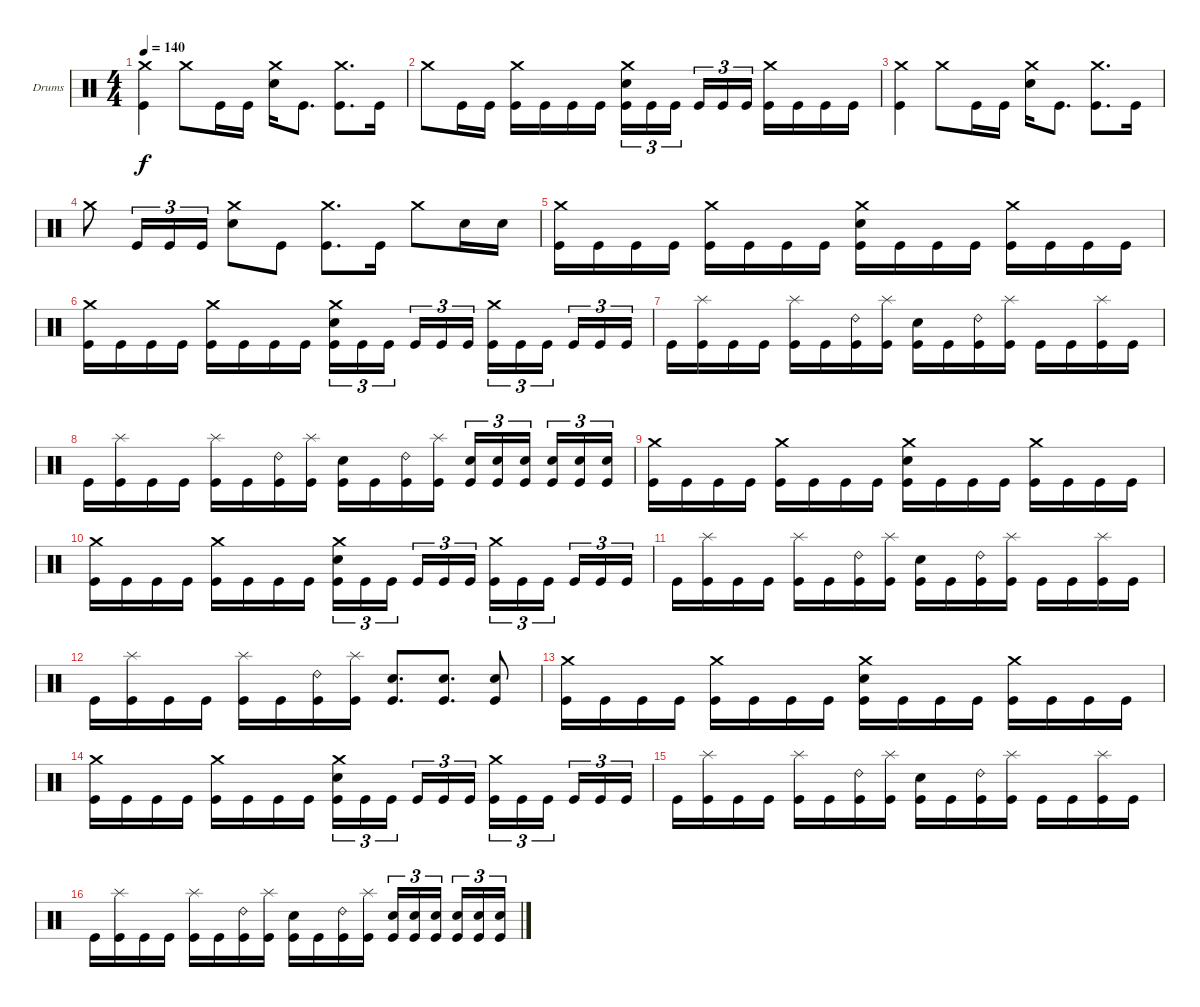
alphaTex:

\defaultSystemsLayout 4
\bracketExtendMode groupsimilarinstruments
\firstSystemTrackNameOrientation horizontal
\otherSystemsTrackNameOrientation horizontal
\track ("Drumkit" "Drums") {instrument percussion}
\staff {score}
\articulation defaults
\ts (4 4)
\tempo 140
\clef neutral
\ks c
("Crash medium (hit)" "Kick (hit)").4{dy f} "Crash medium (hit)".8 "Kick (hit)".16 "Kick (hit)".16 ("Crash medium (hit)" "Snare (hit) 2").16 "Kick (hit)".8{d} ("Crash medium (hit)" "Kick (hit)").8{d} "Kick (hit)".16 |
"Crash medium (hit)".8 "Kick (hit)".16 "Kick (hit)".16 ("Crash medium (hit)" "Kick (hit)").16 "Kick (hit)".16 "Kick (hit)".16 "Kick (hit)".16 ("Crash medium (hit)" "Snare (hit) 2" "Kick (hit)").16{tu (3 2)} "Kick (hit)".16{tu (3 2)} "Kick (hit)".16{tu (3 2)} "Kick (hit)".16{tu (3 2)} "Kick (hit)".16{tu (3 2)} "Kick (hit)".16{tu (3 2)} ("Crash medium (hit)" "Kick (hit)").16 "Kick (hit)".16 "Kick (hit)".16 "Kick (hit)".16 |
("Crash medium (hit)" "Kick (hit)").4 "Crash medium (hit)".8 "Kick (hit)".16 "Kick (hit)".16 ("Crash medium (hit)" "Snare (hit) 2").16 "Kick (hit)".8{d} ("Crash medium (hit)" "Kick (hit)").8{d} "Kick (hit)".16 |
"Crash medium (hit)".8 "Kick (hit)".16{tu (3 2)} "Kick (hit)".16{tu (3 2)} "Kick (hit)".16{tu (3 2)} ("Crash medium (hit)" "Snare (hit) 2").8 "Kick (hit)".8 ("Crash medium (hit)" "Kick (hit)").8{d} "Kick (hit)".16 "Crash medium (hit)".8 "Snare (hit) 2".16 "Snare (hit) 2".16 |
("Crash medium (hit)" "Kick (hit)").16 "Kick (hit)".16 "Kick (hit)".16 "Kick (hit)".16 ("Crash medium (hit)" "Kick (hit)").16 "Kick (hit)".16 "Kick (hit)".16 "Kick (hit)".16 ("Crash medium (hit)" "Snare (hit) 2" "Kick (hit)").16 "Kick (hit)".16 "Kick (hit)".16 "Kick (hit)".16 ("Crash medium (hit)" "Kick (hit)").16 "Kick (hit)".16 "Kick (hit)".16 "Kick (hit)".16 |
("Crash medium (hit)" "Kick (hit)").16 "Kick (hit)".16 "Kick (hit)".16 "Kick (hit)".16 ("Crash medium (hit)" "Kick (hit)").16 "Kick (hit)".16 "Kick (hit)".16 "Kick (hit)".16 ("Crash medium (hit)" "Snare (hit) 2" "Kick (hit)").16{tu (3 2)} "Kick (hit)".16{tu (3 2)} "Kick (hit)".16{tu (3 2)} "Kick (hit)".16{tu (3 2)} "Kick (hit)".16{tu (3 2)} "Kick (hit)".16{tu (3 2)} ("Crash medium (hit)" "Kick (hit)").16{tu (3 2)} "Kick (hit)".16{tu (3 2)} "Kick (hit)".16{tu (3 2)} "Kick (hit)".16{tu (3 2)} "Kick (hit)".16{tu (3 2)} "Kick (hit)".16{tu (3 2)} |
"Kick (hit)".16 ("Splash (hit)" "Kick (hit)").16 "Kick (hit)".16 "Kick (hit)".16 ("Splash (hit)" "Kick (hit)").16 "Kick (hit)".16 ("Ride (bell) 2" "Kick (hit)").16 ("Splash (hit)" "Kick (hit)").16 ("Snare (hit) 2" "Kick (hit)").16 "Kick (hit)".16 ("Ride (bell) 2" "Kick (hit)").16 ("Splash (hit)" "Kick (hit)").16 "Kick (hit)".16 "Kick (hit)".16 ("Splash (hit)" "Kick (hit)").16 "Kick (hit)".16 |
"Kick (hit)".16 ("Splash (hit)" "Kick (hit)").16 "Kick (hit)".16 "Kick (hit)".16 ("Splash (hit)" "Kick (hit)").16 "Kick (hit)".16 ("Ride (bell) 2" "Kick (hit)").16 ("Splash (hit)" "Kick (hit)").16 ("Snare (hit) 2" "Kick (hit)").16 "Kick (hit)".16 ("Ride (bell) 2" "Kick (hit)").16 ("Splash (hit)" "Kick (hit)").16 ("Snare (hit) 2" "Kick (hit)").16{tu (3 2)} ("Snare (hit) 2" "Kick (hit)").16{tu (3 2)} ("Snare (hit) 2" "Kick (hit)").16{tu (3 2)} ("Snare (hit) 2" "Kick (hit)").16{tu (3 2)} ("Snare (hit) 2" "Kick (hit)").16{tu (3 2)} ("Snare (hit) 2" "Kick (hit)").16{tu (3 2)} |
("Crash medium (hit)" "Kick (hit)").16 "Kick (hit)".16 "Kick (hit)".16 "Kick (hit)".16 ("Crash medium (hit)" "Kick (hit)").16 "Kick (hit)".16 "Kick (hit)".16 "Kick (hit)".16 ("Crash medium (hit)" "Snare (hit) 2" "Kick (hit)").16 "Kick (hit)".16 "Kick (hit)".16 "Kick (hit)".16 ("Crash medium (hit)" "Kick (hit)").16 "Kick (hit)".16 "Kick (hit)".16 "Kick (hit)".16 |
("Crash medium (hit)" "Kick (hit)").16 "Kick (hit)".16 "Kick (hit)".16 "Kick (hit)".16 ("Crash medium (hit)" "Kick (hit)").16 "Kick (hit)".16 "Kick (hit)".16 "Kick (hit)".16 ("Crash medium (hit)" "Snare (hit) 2" "Kick (hit)").16{tu (3 2)} "Kick (hit)".16{tu (3 2)} "Kick (hit)".16{tu (3 2)} "Kick (hit)".16{tu (3 2)} "Kick (hit)".16{tu (3 2)} "Kick (hit)".16{tu (3 2)} ("Crash medium (hit)" "Kick (hit)").16{tu (3 2)} "Kick (hit)".16{tu (3 2)} "Kick (hit)".16{tu (3 2)} "Kick (hit)".16{tu (3 2)} "Kick (hit)".16{tu (3 2)} "Kick (hit)".16{tu (3 2)} |
"Kick (hit)".16 ("Splash (hit)" "Kick (hit)").16 "Kick (hit)".16 "Kick (hit)".16 ("Splash (hit)" "Kick (hit)").16 "Kick (hit)".16 ("Ride (bell) 2" "Kick (hit)").16 ("Splash (hit)" "Kick (hit)").16 ("Snare (hit) 2" "Kick (hit)").16 "Kick (hit)".16 ("Ride (bell) 2" "Kick (hit)").16 ("Splash (hit)" "Kick (hit)").16 "Kick (hit)".16 "Kick (hit)".16 ("Splash (hit)" "Kick (hit)").16 "Kick (hit)".16 |
"Kick (hit)".16 ("Splash (hit)" "Kick (hit)").16 "Kick (hit)".16 "Kick (hit)".16 ("Splash (hit)" "Kick (hit)").16 "Kick (hit)".16 ("Ride (bell) 2" "Kick (hit)").16 ("Splash (hit)" "Kick (hit)").16 ("Snare (hit) 2" "Kick (hit)").8{d} ("Snare (hit) 2" "Kick (hit)").8{d} ("Snare (hit) 2" "Kick (hit)").8 |
("Crash medium (hit)" "Kick (hit)").16 "Kick (hit)".16 "Kick (hit)".16 "Kick (hit)".16 ("Crash medium (hit)" "Kick (hit)").16 "Kick (hit)".16 "Kick (hit)".16 "Kick (hit)".16 ("Crash medium (hit)" "Snare (hit) 2" "Kick (hit)").16 "Kick (hit)".16 "Kick (hit)".16 "Kick (hit)".16 ("Crash medium (hit)" "Kick (hit)").16 "Kick (hit)".16 "Kick (hit)".16 "Kick (hit)".16 |
("Crash medium (hit)" "Kick (hit)").16 "Kick (hit)".16 "Kick (hit)".16 "Kick (hit)".16 ("Crash medium (hit)" "Kick (hit)").16 "Kick (hit)".16 "Kick (hit)".16 "Kick (hit)".16 ("Crash medium (hit)" "Snare (hit) 2" "Kick (hit)").16{tu (3 2)} "Kick (hit)".16{tu (3 2)} "Kick (hit)".16{tu (3 2)} "Kick (hit)".16{tu (3 2)} "Kick (hit)".16{tu (3 2)} "Kick (hit)".16{tu (3 2)} ("Crash medium (hit)" "Kick (hit)").16{tu (3 2)} "Kick (hit)".16{tu (3 2)} "Kick (hit)".16{tu (3 2)} "Kick (hit)".16{tu (3 2)} "Kick (hit)".16{tu (3 2)} "Kick (hit)".16{tu (3 2)} |
"Kick (hit)".16 ("Splash (hit)" "Kick (hit)").16 "Kick (hit)".16 "Kick (hit)".16 ("Splash (hit)" "Kick (hit)").16 "Kick (hit)".16 ("Ride (bell) 2" "Kick (hit)").16 ("Splash (hit)" "Kick (hit)").16 ("Snare (hit) 2" "Kick (hit)").16 "Kick (hit)".16 ("Ride (bell) 2" "Kick (hit)").16 ("Splash (hit)" "Kick (hit)").16 "Kick (hit)".16 "Kick (hit)".16 ("Splash (hit)" "Kick (hit)").16 "Kick (hit)".16 |
"Kick (hit)".16 ("Splash (hit)" "Kick (hit)").16 "Kick (hit)".16 "Kick (hit)".16 ("Splash (hit)" "Kick (hit)").16 "Kick (hit)".16 ("Ride (bell) 2" "Kick (hit)").16 ("Splash (hit)" "Kick (hit)").16 ("Snare (hit) 2" "Kick (hit)").16 "Kick (hit)".16 ("Ride (bell) 2" "Kick (hit)").16 ("Splash (hit)" "Kick (hit)").16 ("Snare (hit) 2" "Kick (hit)").16{tu (3 2)} ("Snare (hit) 2" "Kick (hit)").16{tu (3 2)} ("Snare (hit) 2" "Kick (hit)").16{tu (3 2)} ("Snare (hit) 2" "Kick (hit)").16{tu (3 2)} ("Snare (hit) 2" "Kick (hit)").16{tu (3 2)} ("Snare (hit) 2" "Kick (hit)").16{tu (3 2)}
